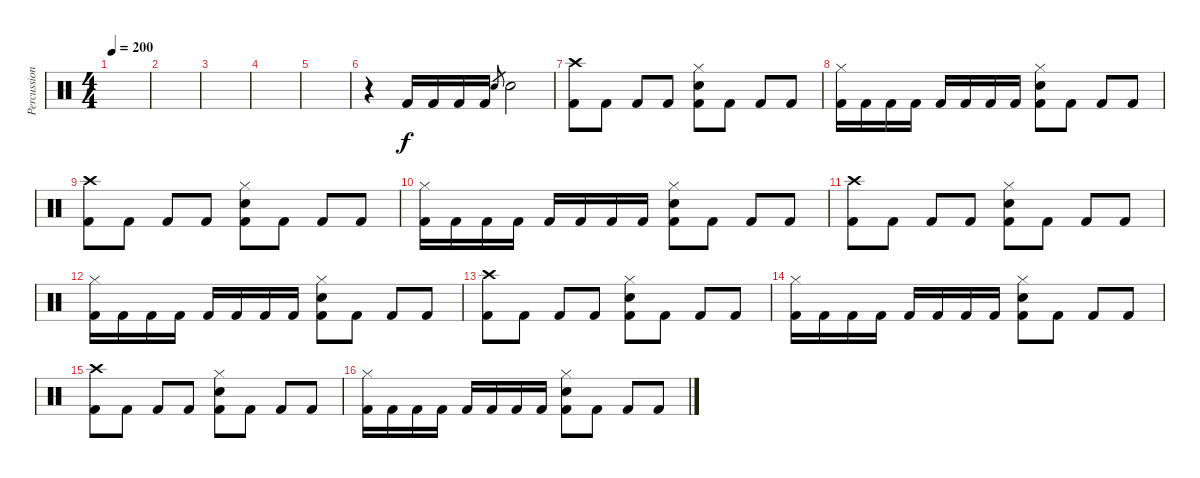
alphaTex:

\track ("Percussions" "Percussion") {instrument percussion}
\staff {score}
\articulation defaults
\ts (4 4)
\tempo 200
\clef neutral
\ks c
|
|
|
|
|
r.4 "Kick (hit) 2".16 "Kick (hit) 2".16 "Kick (hit) 2".16 "Kick (hit) 2".16 "Electric Snare (hit)".8{gr} "Electric Snare (hit)".2 |
("Crash high (hit)" "Kick (hit) 2").8 "Kick (hit) 2".8 "Kick (hit) 2".8 "Kick (hit) 2".8 ("Hi-Hat (closed)" "Electric Snare (hit)" "Kick (hit) 2").8 "Kick (hit) 2".8 "Kick (hit) 2".8 "Kick (hit) 2".8 |
("Hi-Hat (closed)" "Kick (hit) 2").16 "Kick (hit) 2".16 "Kick (hit) 2".16 "Kick (hit) 2".16 "Kick (hit) 2".16 "Kick (hit) 2".16 "Kick (hit) 2".16 "Kick (hit) 2".16 ("Hi-Hat (closed)" "Electric Snare (hit)" "Kick (hit) 2").8 "Kick (hit) 2".8 "Kick (hit) 2".8 "Kick (hit) 2".8 |
("Crash high (hit)" "Kick (hit) 2").8 "Kick (hit) 2".8 "Kick (hit) 2".8 "Kick (hit) 2".8 ("Hi-Hat (closed)" "Electric Snare (hit)" "Kick (hit) 2").8 "Kick (hit) 2".8 "Kick (hit) 2".8 "Kick (hit) 2".8 |
("Hi-Hat (closed)" "Kick (hit) 2").16 "Kick (hit) 2".16 "Kick (hit) 2".16 "Kick (hit) 2".16 "Kick (hit) 2".16 "Kick (hit) 2".16 "Kick (hit) 2".16 "Kick (hit) 2".16 ("Hi-Hat (closed)" "Electric Snare (hit)" "Kick (hit) 2").8 "Kick (hit) 2".8 "Kick (hit) 2".8 "Kick (hit) 2".8 |
("Crash high (hit)" "Kick (hit) 2").8 "Kick (hit) 2".8 "Kick (hit) 2".8 "Kick (hit) 2".8 ("Hi-Hat (closed)" "Electric Snare (hit)" "Kick (hit) 2").8 "Kick (hit) 2".8 "Kick (hit) 2".8 "Kick (hit) 2".8 |
("Hi-Hat (closed)" "Kick (hit) 2").16 "Kick (hit) 2".16 "Kick (hit) 2".16 "Kick (hit) 2".16 "Kick (hit) 2".16 "Kick (hit) 2".16 "Kick (hit) 2".16 "Kick (hit) 2".16 ("Hi-Hat (closed)" "Electric Snare (hit)" "Kick (hit) 2").8 "Kick (hit) 2".8 "Kick (hit) 2".8 "Kick (hit) 2".8 |
("Crash high (hit)" "Kick (hit) 2").8 "Kick (hit) 2".8 "Kick (hit) 2".8 "Kick (hit) 2".8 ("Hi-Hat (closed)" "Electric Snare (hit)" "Kick (hit) 2").8 "Kick (hit) 2".8 "Kick (hit) 2".8 "Kick (hit) 2".8 |
("Hi-Hat (closed)" "Kick (hit) 2").16 "Kick (hit) 2".16 "Kick (hit) 2".16 "Kick (hit) 2".16 "Kick (hit) 2".16 "Kick (hit) 2".16 "Kick (hit) 2".16 "Kick (hit) 2".16 ("Hi-Hat (closed)" "Electric Snare (hit)" "Kick (hit) 2").8 "Kick (hit) 2".8 "Kick (hit) 2".8 "Kick (hit) 2".8 |
("Crash high (hit)" "Kick (hit) 2").8 "Kick (hit) 2".8 "Kick (hit) 2".8 "Kick (hit) 2".8 ("Hi-Hat (closed)" "Electric Snare (hit)" "Kick (hit) 2").8 "Kick (hit) 2".8 "Kick (hit) 2".8 "Kick (hit) 2".8 |
("Hi-Hat (closed)" "Kick (hit) 2").16 "Kick (hit) 2".16 "Kick (hit) 2".16 "Kick (hit) 2".16 "Kick (hit) 2".16 "Kick (hit) 2".16 "Kick (hit) 2".16 "Kick (hit) 2".16 ("Hi-Hat (closed)" "Electric Snare (hit)" "Kick (hit) 2").8 "Kick (hit) 2".8 "Kick (hit) 2".8 "Kick (hit) 2".8
